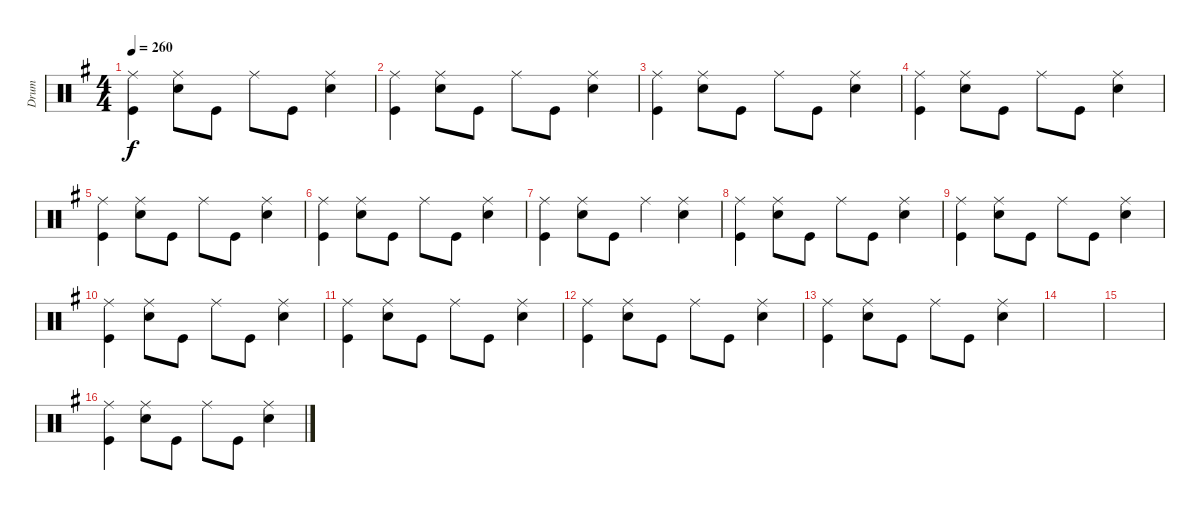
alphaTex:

\track ("Drum" "Drum") {instrument percussion}
\staff {score}
\articulation defaults
\ts (4 4)
\tempo 260
\clef neutral
\ks g
("Ride (middle)" "Kick (hit)").4{dy f} ("Ride (middle)" "Snare (hit) 2").8 "Kick (hit)".8 "Ride (middle)".8 "Kick (hit)".8 ("Ride (middle)" "Snare (hit) 2").4 |
("Ride (middle)" "Kick (hit)").4 ("Ride (middle)" "Snare (hit) 2").8 "Kick (hit)".8 "Ride (middle)".8 "Kick (hit)".8 ("Ride (middle)" "Snare (hit) 2").4 |
("Ride (middle)" "Kick (hit)").4 ("Ride (middle)" "Snare (hit) 2").8 "Kick (hit)".8 "Ride (middle)".8 "Kick (hit)".8 ("Ride (middle)" "Snare (hit) 2").4 |
("Ride (middle)" "Kick (hit)").4 ("Ride (middle)" "Snare (hit) 2").8 "Kick (hit)".8 "Ride (middle)".8 "Kick (hit)".8 ("Ride (middle)" "Snare (hit) 2").4 |
("Ride (middle)" "Kick (hit)").4 ("Ride (middle)" "Snare (hit) 2").8 "Kick (hit)".8 "Ride (middle)".8 "Kick (hit)".8 ("Ride (middle)" "Snare (hit) 2").4 |
("Ride (middle)" "Kick (hit)").4 ("Ride (middle)" "Snare (hit) 2").8 "Kick (hit)".8 "Ride (middle)".8 "Kick (hit)".8 ("Ride (middle)" "Snare (hit) 2").4 |
("Ride (middle)" "Kick (hit)").4 ("Ride (middle)" "Snare (hit) 2").8 "Kick (hit)".8 "Ride (middle)".4 ("Ride (middle)" "Snare (hit) 2").4 |
("Ride (middle)" "Kick (hit)").4 ("Ride (middle)" "Snare (hit) 2").8 "Kick (hit)".8 "Ride (middle)".8 "Kick (hit)".8 ("Ride (middle)" "Snare (hit) 2").4 |
("Ride (middle)" "Kick (hit)").4 ("Ride (middle)" "Snare (hit) 2").8 "Kick (hit)".8 "Ride (middle)".8 "Kick (hit)".8 ("Ride (middle)" "Snare (hit) 2").4 |
("Ride (middle)" "Kick (hit)").4 ("Ride (middle)" "Snare (hit) 2").8 "Kick (hit)".8 "Ride (middle)".8 "Kick (hit)".8 ("Ride (middle)" "Snare (hit) 2").4 |
("Ride (middle)" "Kick (hit)").4 ("Ride (middle)" "Snare (hit) 2").8 "Kick (hit)".8 "Ride (middle)".8 "Kick (hit)".8 ("Ride (middle)" "Snare (hit) 2").4 |
("Ride (middle)" "Kick (hit)").4 ("Ride (middle)" "Snare (hit) 2").8 "Kick (hit)".8 "Ride (middle)".8 "Kick (hit)".8 ("Ride (middle)" "Snare (hit) 2").4 |
("Ride (middle)" "Kick (hit)").4 ("Ride (middle)" "Snare (hit) 2").8 "Kick (hit)".8 "Ride (middle)".8 "Kick (hit)".8 ("Ride (middle)" "Snare (hit) 2").4 |
|
|
("Ride (middle)" "Kick (hit)").4 ("Ride (middle)" "Snare (hit) 2").8 "Kick (hit)".8 "Ride (middle)".8 "Kick (hit)".8 ("Ride (middle)" "Snare (hit) 2").4
